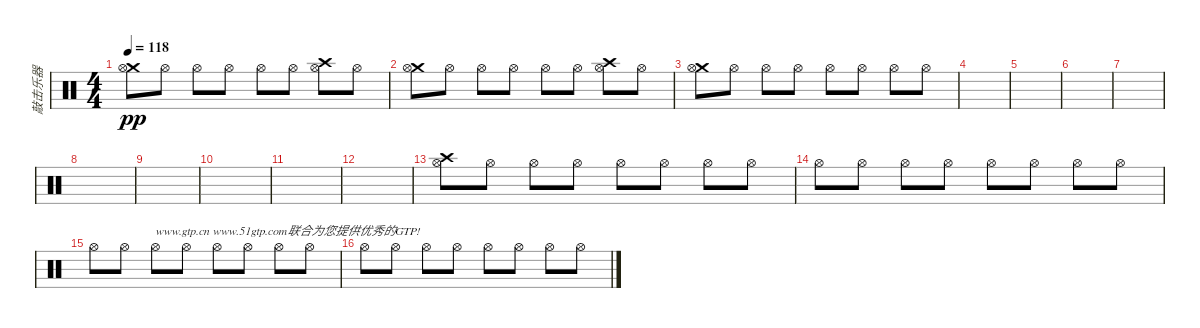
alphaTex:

\track ("敲击乐器" "敲击乐器") {instrument percussion}
\staff {score}
\articulation defaults
\ts (4 4)
\tempo 118
\clef neutral
\ks c
("Crash medium (hit)" "Hi-Hat (open)").8{dy pp} "Hi-Hat (open)".8 "Hi-Hat (open)".8 "Hi-Hat (open)".8 "Hi-Hat (open)".8 "Hi-Hat (open)".8 ("Crash high (hit)" "Hi-Hat (open)").8 "Hi-Hat (open)".8 |
("Crash medium (hit)" "Hi-Hat (open)").8 "Hi-Hat (open)".8 "Hi-Hat (open)".8 "Hi-Hat (open)".8 "Hi-Hat (open)".8 "Hi-Hat (open)".8 ("Crash high (hit)" "Hi-Hat (open)").8 "Hi-Hat (open)".8 |
("Crash medium (hit)" "Hi-Hat (open)").8 "Hi-Hat (open)".8 "Hi-Hat (open)".8 "Hi-Hat (open)".8 "Hi-Hat (open)".8 "Hi-Hat (open)".8 "Hi-Hat (open)".8 "Hi-Hat (open)".8 |
|
|
|
|
|
|
|
|
|
("Crash high (hit)" "Hi-Hat (open)").8 "Hi-Hat (open)".8 "Hi-Hat (open)".8 "Hi-Hat (open)".8 "Hi-Hat (open)".8 "Hi-Hat (open)".8 "Hi-Hat (open)".8 "Hi-Hat (open)".8 |
"Hi-Hat (open)".8 "Hi-Hat (open)".8 "Hi-Hat (open)".8 "Hi-Hat (open)".8 "Hi-Hat (open)".8 "Hi-Hat (open)".8 "Hi-Hat (open)".8 "Hi-Hat (open)".8 |
"Hi-Hat (open)".8 "Hi-Hat (open)".8 "Hi-Hat (open)".8{txt "www.gtp.cn www.51gtp.com联合为您提供优秀的GTP!"} "Hi-Hat (open)".8 "Hi-Hat (open)".8 "Hi-Hat (open)".8 "Hi-Hat (open)".8 "Hi-Hat (open)".8 |
"Hi-Hat (open)".8 "Hi-Hat (open)".8 "Hi-Hat (open)".8 "Hi-Hat (open)".8 "Hi-Hat (open)".8 "Hi-Hat (open)".8 "Hi-Hat (open)".8 "Hi-Hat (open)".8
